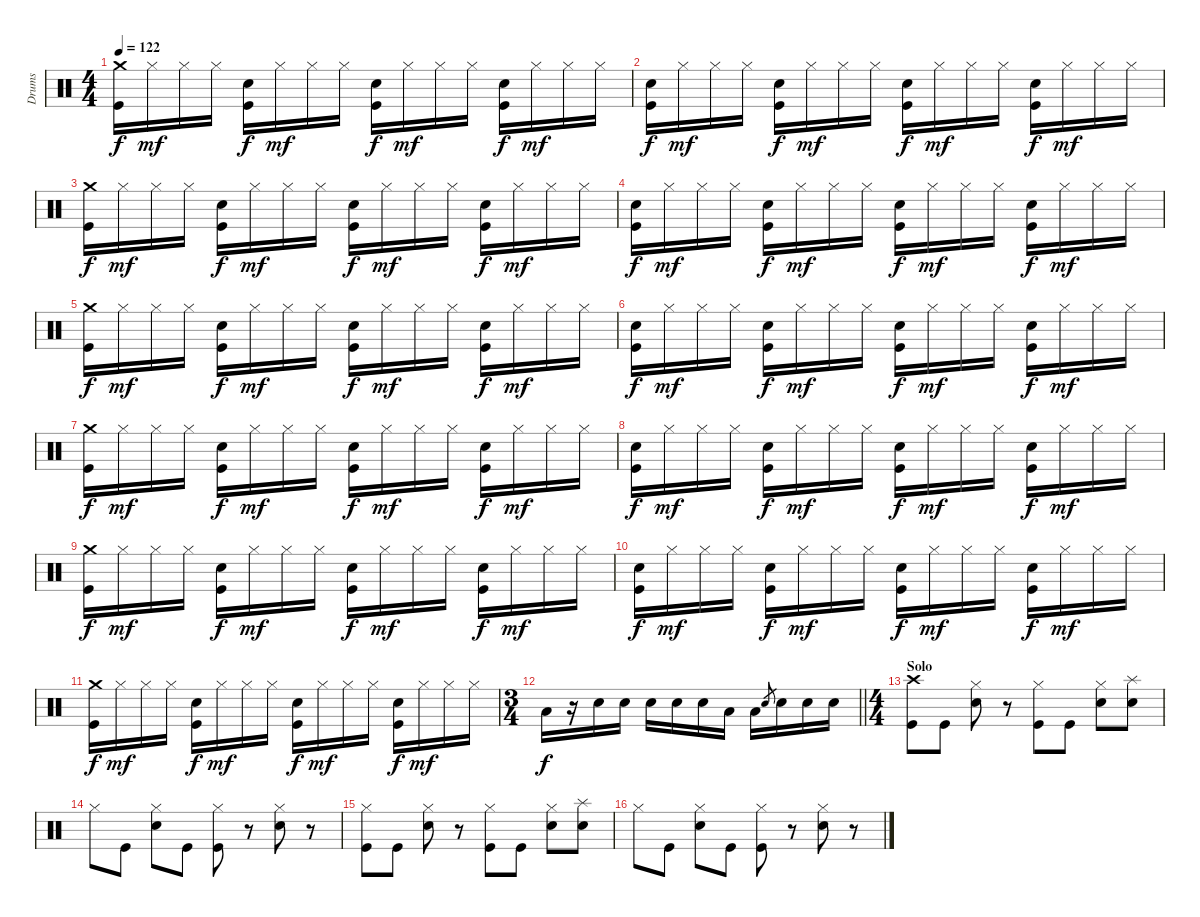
\track ("Drums" "Drums") {instrument percussion}
\staff {score}
\articulation defaults
\ts (4 4)
\tempo 122
\clef neutral
\ks c
("Crash medium (hit)" "Kick (hit)").16{dy f} "Hi-Hat (closed)".16{dy mf} "Hi-Hat (closed)".16 "Hi-Hat (closed)".16 ("Snare (hit) 2" "Kick (hit)").16{dy f} "Hi-Hat (closed)".16{dy mf} "Hi-Hat (closed)".16 "Hi-Hat (closed)".16 ("Snare (hit) 2" "Kick (hit)").16{dy f} "Hi-Hat (closed)".16{dy mf} "Hi-Hat (closed)".16 "Hi-Hat (closed)".16 ("Snare (hit) 2" "Kick (hit)").16{dy f} "Hi-Hat (closed)".16{dy mf} "Hi-Hat (closed)".16 "Hi-Hat (closed)".16 |
("Snare (hit) 2" "Kick (hit)").16{dy f} "Hi-Hat (closed)".16{dy mf} "Hi-Hat (closed)".16 "Hi-Hat (closed)".16 ("Snare (hit) 2" "Kick (hit)").16{dy f} "Hi-Hat (closed)".16{dy mf} "Hi-Hat (closed)".16 "Hi-Hat (closed)".16 ("Snare (hit) 2" "Kick (hit)").16{dy f} "Hi-Hat (closed)".16{dy mf} "Hi-Hat (closed)".16 "Hi-Hat (closed)".16 ("Snare (hit) 2" "Kick (hit)").16{dy f} "Hi-Hat (closed)".16{dy mf} "Hi-Hat (closed)".16 "Hi-Hat (closed)".16 |
("Crash medium (hit)" "Kick (hit)").16{dy f} "Hi-Hat (closed)".16{dy mf} "Hi-Hat (closed)".16 "Hi-Hat (closed)".16 ("Snare (hit) 2" "Kick (hit)").16{dy f} "Hi-Hat (closed)".16{dy mf} "Hi-Hat (closed)".16 "Hi-Hat (closed)".16 ("Snare (hit) 2" "Kick (hit)").16{dy f} "Hi-Hat (closed)".16{dy mf} "Hi-Hat (closed)".16 "Hi-Hat (closed)".16 ("Snare (hit) 2" "Kick (hit)").16{dy f} "Hi-Hat (closed)".16{dy mf} "Hi-Hat (closed)".16 "Hi-Hat (closed)".16 |
("Snare (hit) 2" "Kick (hit)").16{dy f} "Hi-Hat (closed)".16{dy mf} "Hi-Hat (closed)".16 "Hi-Hat (closed)".16 ("Snare (hit) 2" "Kick (hit)").16{dy f} "Hi-Hat (closed)".16{dy mf} "Hi-Hat (closed)".16 "Hi-Hat (closed)".16 ("Snare (hit) 2" "Kick (hit)").16{dy f} "Hi-Hat (closed)".16{dy mf} "Hi-Hat (closed)".16 "Hi-Hat (closed)".16 ("Snare (hit) 2" "Kick (hit)").16{dy f} "Hi-Hat (closed)".16{dy mf} "Hi-Hat (closed)".16 "Hi-Hat (closed)".16 |
("Crash medium (hit)" "Kick (hit)").16{dy f} "Hi-Hat (closed)".16{dy mf} "Hi-Hat (closed)".16 "Hi-Hat (closed)".16 ("Snare (hit) 2" "Kick (hit)").16{dy f} "Hi-Hat (closed)".16{dy mf} "Hi-Hat (closed)".16 "Hi-Hat (closed)".16 ("Snare (hit) 2" "Kick (hit)").16{dy f} "Hi-Hat (closed)".16{dy mf} "Hi-Hat (closed)".16 "Hi-Hat (closed)".16 ("Snare (hit) 2" "Kick (hit)").16{dy f} "Hi-Hat (closed)".16{dy mf} "Hi-Hat (closed)".16 "Hi-Hat (closed)".16 |
("Snare (hit) 2" "Kick (hit)").16{dy f} "Hi-Hat (closed)".16{dy mf} "Hi-Hat (closed)".16 "Hi-Hat (closed)".16 ("Snare (hit) 2" "Kick (hit)").16{dy f} "Hi-Hat (closed)".16{dy mf} "Hi-Hat (closed)".16 "Hi-Hat (closed)".16 ("Snare (hit) 2" "Kick (hit)").16{dy f} "Hi-Hat (closed)".16{dy mf} "Hi-Hat (closed)".16 "Hi-Hat (closed)".16 ("Snare (hit) 2" "Kick (hit)").16{dy f} "Hi-Hat (closed)".16{dy mf} "Hi-Hat (closed)".16 "Hi-Hat (closed)".16 |
("Crash medium (hit)" "Kick (hit)").16{dy f} "Hi-Hat (closed)".16{dy mf} "Hi-Hat (closed)".16 "Hi-Hat (closed)".16 ("Snare (hit) 2" "Kick (hit)").16{dy f} "Hi-Hat (closed)".16{dy mf} "Hi-Hat (closed)".16 "Hi-Hat (closed)".16 ("Snare (hit) 2" "Kick (hit)").16{dy f} "Hi-Hat (closed)".16{dy mf} "Hi-Hat (closed)".16 "Hi-Hat (closed)".16 ("Snare (hit) 2" "Kick (hit)").16{dy f} "Hi-Hat (closed)".16{dy mf} "Hi-Hat (closed)".16 "Hi-Hat (closed)".16 |
("Snare (hit) 2" "Kick (hit)").16{dy f} "Hi-Hat (closed)".16{dy mf} "Hi-Hat (closed)".16 "Hi-Hat (closed)".16 ("Snare (hit) 2" "Kick (hit)").16{dy f} "Hi-Hat (closed)".16{dy mf} "Hi-Hat (closed)".16 "Hi-Hat (closed)".16 ("Snare (hit) 2" "Kick (hit)").16{dy f} "Hi-Hat (closed)".16{dy mf} "Hi-Hat (closed)".16 "Hi-Hat (closed)".16 ("Snare (hit) 2" "Kick (hit)").16{dy f} "Hi-Hat (closed)".16{dy mf} "Hi-Hat (closed)".16 "Hi-Hat (closed)".16 |
("Crash medium (hit)" "Kick (hit)").16{dy f} "Hi-Hat (closed)".16{dy mf} "Hi-Hat (closed)".16 "Hi-Hat (closed)".16 ("Snare (hit) 2" "Kick (hit)").16{dy f} "Hi-Hat (closed)".16{dy mf} "Hi-Hat (closed)".16 "Hi-Hat (closed)".16 ("Snare (hit) 2" "Kick (hit)").16{dy f} "Hi-Hat (closed)".16{dy mf} "Hi-Hat (closed)".16 "Hi-Hat (closed)".16 ("Snare (hit) 2" "Kick (hit)").16{dy f} "Hi-Hat (closed)".16{dy mf} "Hi-Hat (closed)".16 "Hi-Hat (closed)".16 |
("Snare (hit) 2" "Kick (hit)").16{dy f} "Hi-Hat (closed)".16{dy mf} "Hi-Hat (closed)".16 "Hi-Hat (closed)".16 ("Snare (hit) 2" "Kick (hit)").16{dy f} "Hi-Hat (closed)".16{dy mf} "Hi-Hat (closed)".16 "Hi-Hat (closed)".16 ("Snare (hit) 2" "Kick (hit)").16{dy f} "Hi-Hat (closed)".16{dy mf} "Hi-Hat (closed)".16 "Hi-Hat (closed)".16 ("Snare (hit) 2" "Kick (hit)").16{dy f} "Hi-Hat (closed)".16{dy mf} "Hi-Hat (closed)".16 "Hi-Hat (closed)".16 |
("Crash medium (hit)" "Kick (hit)").16{dy f} "Hi-Hat (closed)".16{dy mf} "Hi-Hat (closed)".16 "Hi-Hat (closed)".16 ("Snare (hit) 2" "Kick (hit)").16{dy f} "Hi-Hat (closed)".16{dy mf} "Hi-Hat (closed)".16 "Hi-Hat (closed)".16 ("Snare (hit) 2" "Kick (hit)").16{dy f} "Hi-Hat (closed)".16{dy mf} "Hi-Hat (closed)".16 "Hi-Hat (closed)".16 ("Snare (hit) 2" "Kick (hit)").16{dy f} "Hi-Hat (closed)".16{dy mf} "Hi-Hat (closed)".16 "Hi-Hat (closed)".16 |
\ts (3 4)
\barLineRight lightlight "Low Tom (hit)".16{dy f}
r.16 "Snare (hit) 2".16 "Snare (hit) 2".16 "Snare (hit) 2".16 "Snare (hit) 2".16 "Snare (hit) 2".16 "Low Tom (hit)".16 "Low Tom (hit)".16 "Snare (hit) 2".8{gr} "Snare (hit) 2".16 "Snare (hit) 2".16 "Snare (hit) 2".16 |
\ts (4 4)
\section ("" "Solo")
("Crash high (hit)" "Kick (hit)").8 "Kick (hit)".8 ("Hi-Hat (closed)" "Snare (hit) 2").8 r.8 ("Hi-Hat (closed)" "Kick (hit)").8 "Kick (hit)".8 ("Hi-Hat (closed)" "Hand Clap (hit)").8 ("Splash (hit)" "Electric Snare (hit)").8 |
"Hi-Hat (closed)".8 "Kick (hit)".8 ("Hi-Hat (closed)" "Snare (hit) 2").8 "Kick (hit)".8 ("Hi-Hat (closed)" "Kick (hit)").8 r.8 ("Hi-Hat (closed)" "Snare (hit) 2").8 r.8 |
("Hi-Hat (closed)" "Kick (hit)").8 "Kick (hit)".8 ("Hi-Hat (closed)" "Snare (hit) 2").8 r.8 ("Hi-Hat (closed)" "Kick (hit)").8 "Kick (hit)".8 ("Hi-Hat (closed)" "Hand Clap (hit)").8 ("Splash (hit)" "Electric Snare (hit)").8 |
"Hi-Hat (closed)".8 "Kick (hit)".8 ("Hi-Hat (closed)" "Snare (hit) 2").8 "Kick (hit)".8 ("Hi-Hat (closed)" "Kick (hit)").8 r.8 ("Hi-Hat (closed)" "Snare (hit) 2").8 r.8
